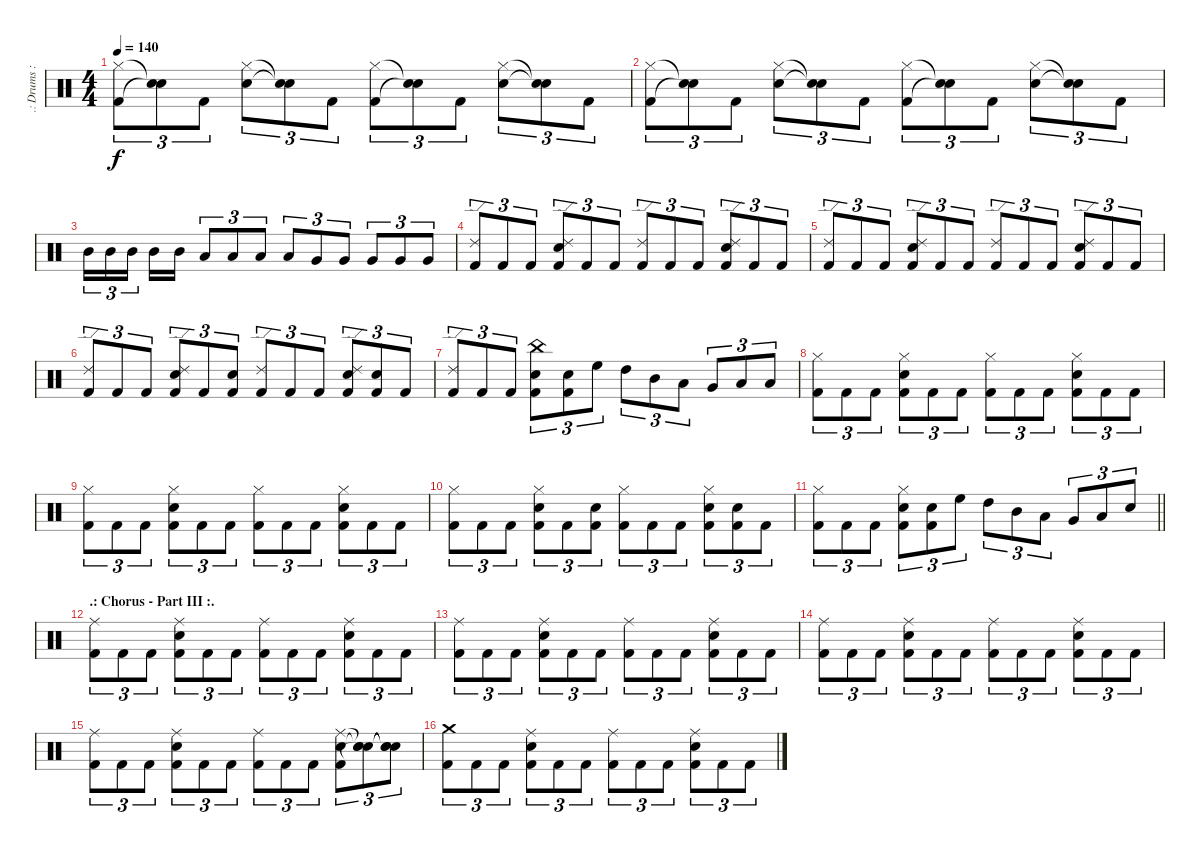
\track (".: Drums :." ".: Drums :") {instrument percussion}
\staff {score}
\articulation defaults
\ts (4 4)
\tempo 140
\clef neutral
\ks c
("Hi-Hat (closed)" "Kick (hit) 2").8{tu (3 2) dy f} ("Snare (hit)"{t} "Snare (hit)"{t}).8{tu (3 2)} "Kick (hit) 2".8{tu (3 2)} ("Hi-Hat (closed)" "Snare (hit) 2").8{tu (3 2)} ("Snare (hit)"{t} "Snare (hit)"{t}).8{tu (3 2)} "Kick (hit) 2".8{tu (3 2)} ("Hi-Hat (closed)" "Kick (hit) 2").8{tu (3 2)} ("Snare (hit)"{t} "Snare (hit)"{t}).8{tu (3 2)} "Kick (hit) 2".8{tu (3 2)} ("Hi-Hat (closed)" "Snare (hit) 2").8{tu (3 2)} ("Snare (hit)"{t} "Snare (hit)"{t}).8{tu (3 2)} "Kick (hit) 2".8{tu (3 2)} |
("Hi-Hat (closed)" "Kick (hit) 2").8{tu (3 2)} ("Snare (hit)"{t} "Snare (hit)"{t}).8{tu (3 2)} "Kick (hit) 2".8{tu (3 2)} ("Hi-Hat (closed)" "Snare (hit) 2").8{tu (3 2)} ("Snare (hit)"{t} "Snare (hit)"{t}).8{tu (3 2)} "Kick (hit) 2".8{tu (3 2)} ("Hi-Hat (closed)" "Kick (hit) 2").8{tu (3 2)} ("Snare (hit)"{t} "Snare (hit)"{t}).8{tu (3 2)} "Kick (hit) 2".8{tu (3 2)} ("Hi-Hat (closed)" "Snare (hit) 2").8{tu (3 2)} ("Snare (hit)"{t} "Snare (hit)"{t}).8{tu (3 2)} "Kick (hit) 2".8{tu (3 2)} |
"Mid Tom (hit)".16{tu (3 2)} "Mid Tom (hit)".16{tu (3 2)} "Mid Tom (hit)".16{tu (3 2) beam splitsecondary} "Mid Tom (hit)".16 "Mid Tom (hit)".16 "Low Tom (hit)".8{tu (3 2)} "Low Tom (hit)".8{tu (3 2)} "Low Tom (hit)".8{tu (3 2)} "Low Tom (hit)".8{tu (3 2)} "Very Low Tom (hit)".8{tu (3 2)} "Very Low Tom (hit)".8{tu (3 2)} "Very Low Tom (hit)".8{tu (3 2)} "Very Low Tom (hit)".8{tu (3 2)} "Very Low Tom (hit)".8{tu (3 2)} |
("Ride (edge) 2" "Kick (hit) 2").8{tu (3 2)} "Kick (hit) 2".8{tu (3 2)} "Kick (hit) 2".8{tu (3 2)} ("Ride (edge) 2" "Snare (hit) 2" "Kick (hit) 2").8{tu (3 2)} "Kick (hit) 2".8{tu (3 2)} "Kick (hit) 2".8{tu (3 2)} ("Ride (edge) 2" "Kick (hit) 2").8{tu (3 2)} "Kick (hit) 2".8{tu (3 2)} "Kick (hit) 2".8{tu (3 2)} ("Ride (edge) 2" "Snare (hit) 2" "Kick (hit) 2").8{tu (3 2)} "Kick (hit) 2".8{tu (3 2)} "Kick (hit) 2".8{tu (3 2)} |
("Ride (edge) 2" "Kick (hit) 2").8{tu (3 2)} "Kick (hit) 2".8{tu (3 2)} "Kick (hit) 2".8{tu (3 2)} ("Ride (edge) 2" "Snare (hit) 2" "Kick (hit) 2").8{tu (3 2)} "Kick (hit) 2".8{tu (3 2)} "Kick (hit) 2".8{tu (3 2)} ("Ride (edge) 2" "Kick (hit) 2").8{tu (3 2)} "Kick (hit) 2".8{tu (3 2)} "Kick (hit) 2".8{tu (3 2)} ("Ride (edge) 2" "Snare (hit) 2" "Kick (hit) 2").8{tu (3 2)} "Kick (hit) 2".8{tu (3 2)} "Kick (hit) 2".8{tu (3 2)} |
("Ride (edge) 2" "Kick (hit) 2").8{tu (3 2)} "Kick (hit) 2".8{tu (3 2)} "Kick (hit) 2".8{tu (3 2)} ("Ride (edge) 2" "Snare (hit) 2" "Kick (hit) 2").8{tu (3 2)} "Kick (hit) 2".8{tu (3 2)} ("Snare (hit) 2" "Kick (hit) 2").8{tu (3 2)} ("Ride (edge) 2" "Kick (hit) 2").8{tu (3 2)} "Kick (hit) 2".8{tu (3 2)} "Kick (hit) 2".8{tu (3 2)} ("Ride (edge) 2" "Snare (hit) 2" "Kick (hit) 2").8{tu (3 2)} ("Snare (hit) 2" "Kick (hit) 2").8{tu (3 2)} "Kick (hit) 2".8{tu (3 2)} |
("Ride (edge) 2" "Kick (hit) 2").8{tu (3 2)} "Kick (hit) 2".8{tu (3 2)} "Kick (hit) 2".8{tu (3 2)} ("China (hit)" "Snare (hit) 2" "Kick (hit) 2").8{tu (3 2)} ("Snare (hit) 2" "Kick (hit) 2").8{tu (3 2)} "High Floor Tom (hit)".8{tu (3 2)} "High Tom (hit)".8{tu (3 2)} "Mid Tom (hit)".8{tu (3 2)} "Low Tom (hit)".8{tu (3 2)} "Very Low Tom (hit)".8{tu (3 2)} "Low Floor Tom (hit)".8{tu (3 2)} "Low Floor Tom (hit)".8{tu (3 2)} |
("Hi-Hat (closed)" "Kick (hit) 2").8{tu (3 2)} "Kick (hit) 2".8{tu (3 2)} "Kick (hit) 2".8{tu (3 2)} ("Hi-Hat (closed)" "Snare (hit) 2" "Kick (hit) 2").8{tu (3 2)} "Kick (hit) 2".8{tu (3 2)} "Kick (hit) 2".8{tu (3 2)} ("Hi-Hat (closed)" "Kick (hit) 2").8{tu (3 2)} "Kick (hit) 2".8{tu (3 2)} "Kick (hit) 2".8{tu (3 2)} ("Hi-Hat (closed)" "Snare (hit) 2" "Kick (hit) 2").8{tu (3 2)} "Kick (hit) 2".8{tu (3 2)} "Kick (hit) 2".8{tu (3 2)} |
("Hi-Hat (closed)" "Kick (hit) 2").8{tu (3 2)} "Kick (hit) 2".8{tu (3 2)} "Kick (hit) 2".8{tu (3 2)} ("Hi-Hat (closed)" "Snare (hit) 2" "Kick (hit) 2").8{tu (3 2)} "Kick (hit) 2".8{tu (3 2)} "Kick (hit) 2".8{tu (3 2)} ("Hi-Hat (closed)" "Kick (hit) 2").8{tu (3 2)} "Kick (hit) 2".8{tu (3 2)} "Kick (hit) 2".8{tu (3 2)} ("Hi-Hat (closed)" "Snare (hit) 2" "Kick (hit) 2").8{tu (3 2)} "Kick (hit) 2".8{tu (3 2)} "Kick (hit) 2".8{tu (3 2)} |
("Hi-Hat (closed)" "Kick (hit) 2").8{tu (3 2)} "Kick (hit) 2".8{tu (3 2)} "Kick (hit) 2".8{tu (3 2)} ("Hi-Hat (closed)" "Snare (hit) 2" "Kick (hit) 2").8{tu (3 2)} "Kick (hit) 2".8{tu (3 2)} ("Snare (hit) 2" "Kick (hit) 2").8{tu (3 2)} ("Hi-Hat (closed)" "Kick (hit) 2").8{tu (3 2)} "Kick (hit) 2".8{tu (3 2)} "Kick (hit) 2".8{tu (3 2)} ("Hi-Hat (closed)" "Snare (hit) 2" "Kick (hit) 2").8{tu (3 2)} ("Snare (hit) 2" "Kick (hit) 2").8{tu (3 2)} "Kick (hit) 2".8{tu (3 2)} |
\barLineRight lightlight
("Hi-Hat (closed)" "Kick (hit) 2").8{tu (3 2)} "Kick (hit) 2".8{tu (3 2)} "Kick (hit) 2".8{tu (3 2)} ("Hi-Hat (closed)" "Snare (hit) 2" "Kick (hit) 2").8{tu (3 2)} ("Snare (hit) 2" "Kick (hit) 2").8{tu (3 2)} "High Floor Tom (hit)".8{tu (3 2)} "High Tom (hit)".8{tu (3 2)} "Mid Tom (hit)".8{tu (3 2)} "Low Tom (hit)".8{tu (3 2)} "Very Low Tom (hit)".8{tu (3 2)} "Low Floor Tom (hit)".8{tu (3 2)} "Snare (hit) 2".8{tu (3 2)} |
\section ("" ".: Chorus - Part III :.")
("Ride (middle)" "Kick (hit) 2").8{tu (3 2)} "Kick (hit) 2".8{tu (3 2)} "Kick (hit) 2".8{tu (3 2)} ("Ride (middle)" "Snare (hit) 2" "Kick (hit) 2").8{tu (3 2)} "Kick (hit) 2".8{tu (3 2)} "Kick (hit) 2".8{tu (3 2)} ("Ride (middle)" "Kick (hit) 2").8{tu (3 2)} "Kick (hit) 2".8{tu (3 2)} "Kick (hit) 2".8{tu (3 2)} ("Ride (middle)" "Snare (hit) 2" "Kick (hit) 2").8{tu (3 2)} "Kick (hit) 2".8{tu (3 2)} "Kick (hit) 2".8{tu (3 2)} |
("Ride (middle)" "Kick (hit) 2").8{tu (3 2)} "Kick (hit) 2".8{tu (3 2)} "Kick (hit) 2".8{tu (3 2)} ("Ride (middle)" "Snare (hit) 2" "Kick (hit) 2").8{tu (3 2)} "Kick (hit) 2".8{tu (3 2)} "Kick (hit) 2".8{tu (3 2)} ("Ride (middle)" "Kick (hit) 2").8{tu (3 2)} "Kick (hit) 2".8{tu (3 2)} "Kick (hit) 2".8{tu (3 2)} ("Ride (middle)" "Snare (hit) 2" "Kick (hit) 2").8{tu (3 2)} "Kick (hit) 2".8{tu (3 2)} "Kick (hit) 2".8{tu (3 2)} |
("Ride (middle)" "Kick (hit) 2").8{tu (3 2)} "Kick (hit) 2".8{tu (3 2)} "Kick (hit) 2".8{tu (3 2)} ("Ride (middle)" "Snare (hit) 2" "Kick (hit) 2").8{tu (3 2)} "Kick (hit) 2".8{tu (3 2)} "Kick (hit) 2".8{tu (3 2)} ("Ride (middle)" "Kick (hit) 2").8{tu (3 2)} "Kick (hit) 2".8{tu (3 2)} "Kick (hit) 2".8{tu (3 2)} ("Ride (middle)" "Snare (hit) 2" "Kick (hit) 2").8{tu (3 2)} "Kick (hit) 2".8{tu (3 2)} "Kick (hit) 2".8{tu (3 2)} |
("Ride (middle)" "Kick (hit) 2").8{tu (3 2)} "Kick (hit) 2".8{tu (3 2)} "Kick (hit) 2".8{tu (3 2)} ("Ride (middle)" "Snare (hit) 2" "Kick (hit) 2").8{tu (3 2)} "Kick (hit) 2".8{tu (3 2)} "Kick (hit) 2".8{tu (3 2)} ("Ride (middle)" "Kick (hit) 2").8{tu (3 2)} "Kick (hit) 2".8{tu (3 2)} "Kick (hit) 2".8{tu (3 2)} ("Ride (middle)" "Snare (hit) 2" "Kick (hit) 2").8{tu (3 2)} ("Snare (hit)"{t} "Snare (hit)"{t} "Snare (hit)"{t}).8{tu (3 2)} ("Snare (hit)"{t} "Snare (hit)"{t} "Snare (hit)"{t}).8{tu (3 2)} |
("Crash medium (hit)" "Kick (hit) 2").8{tu (3 2)} "Kick (hit) 2".8{tu (3 2)} "Kick (hit) 2".8{tu (3 2)} ("Ride (middle)" "Snare (hit) 2" "Kick (hit) 2").8{tu (3 2)} "Kick (hit) 2".8{tu (3 2)} "Kick (hit) 2".8{tu (3 2)} ("Ride (middle)" "Kick (hit) 2").8{tu (3 2)} "Kick (hit) 2".8{tu (3 2)} "Kick (hit) 2".8{tu (3 2)} ("Ride (middle)" "Snare (hit) 2" "Kick (hit) 2").8{tu (3 2)} "Kick (hit) 2".8{tu (3 2)} "Kick (hit) 2".8{tu (3 2)}
